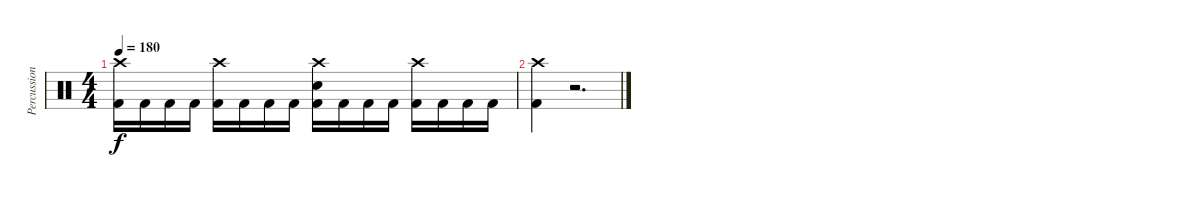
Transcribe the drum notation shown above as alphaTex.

\track ("Percussion" "Percussion") {instrument percussion}
\staff {score}
\articulation defaults
\ts (4 4)
\tempo 180
\clef neutral
\ks c
("Crash high (hit)" "Kick (hit) 2").16{dy f} "Kick (hit) 2".16 "Kick (hit) 2".16 "Kick (hit) 2".16 ("Crash high (hit)" "Kick (hit) 2").16 "Kick (hit) 2".16 "Kick (hit) 2".16 "Kick (hit) 2".16 ("Crash high (hit)" "Electric Snare (hit)" "Kick (hit) 2").16 "Kick (hit) 2".16 "Kick (hit) 2".16 "Kick (hit) 2".16 ("Crash high (hit)" "Kick (hit) 2").16 "Kick (hit) 2".16 "Kick (hit) 2".16 "Kick (hit) 2".16 |
("Crash high (hit)" "Kick (hit) 2").4 r.2{d}
